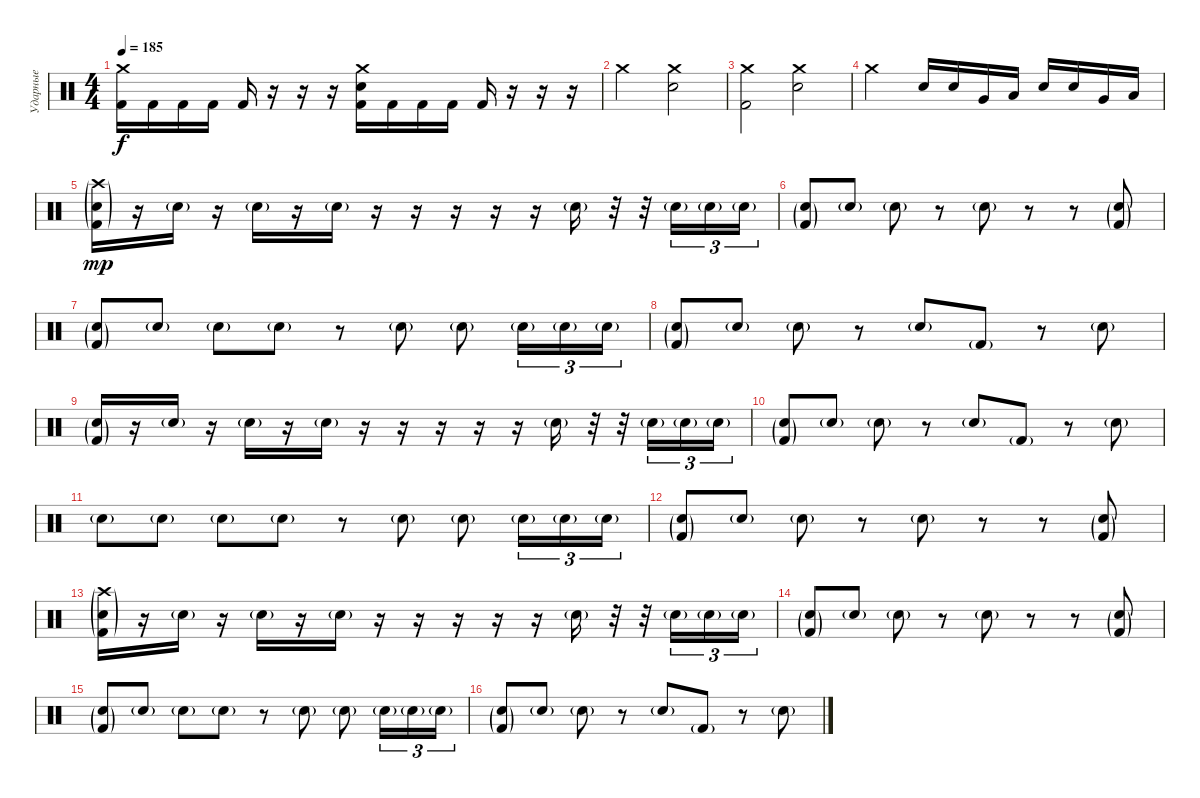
\track ("Ударные" "Ударные") {instrument percussion}
\staff {score}
\articulation defaults
\ts (4 4)
\tempo 185
\clef neutral
\ks c
("Crash medium (hit)" "Kick (hit) 2").16{dy f} "Kick (hit) 2".16 "Kick (hit) 2".16 "Kick (hit) 2".16 "Kick (hit) 2".16 r.16 r.16 r.16 ("Crash medium (hit)" "Electric Snare (hit)" "Kick (hit) 2").16 "Kick (hit) 2".16 "Kick (hit) 2".16 "Kick (hit) 2".16 "Kick (hit) 2".16 r.16 r.16 r.16 |
"Crash medium (hit)".2 ("Crash medium (hit)" "Electric Snare (hit)").2 |
("Crash medium (hit)" "Kick (hit) 2").2 ("Crash medium (hit)" "Electric Snare (hit)").2 |
"Crash medium (hit)".2 "Electric Snare (hit)".16 "Electric Snare (hit)".16 "Very Low Tom (hit)".16 "Low Floor Tom (hit)".16 "Electric Snare (hit)".16 "Electric Snare (hit)".16 "Very Low Tom (hit)".16 "Low Floor Tom (hit)".16 |
("Crash high (hit)"{g} "Electric Snare (hit)"{g} "Kick (hit) 2"{g}).16{dy mp} r.16 "Electric Snare (hit)"{g}.16 r.16 "Electric Snare (hit)"{g}.16 r.16 "Electric Snare (hit)"{g}.16 r.16 r.16 r.16 r.16 r.16 "Electric Snare (hit)"{g}.16 r.32 r.32 "Electric Snare (hit)"{g}.16{tu (3 2)} "Electric Snare (hit)"{g}.16{tu (3 2)} "Electric Snare (hit)"{g}.16{tu (3 2)} |
("Electric Snare (hit)"{g} "Kick (hit) 2"{g}).8 "Electric Snare (hit)"{g}.8 "Electric Snare (hit)"{g}.8 r.8 "Electric Snare (hit)"{g}.8 r.8 r.8 ("Electric Snare (hit)"{g} "Kick (hit) 2"{g}).8 |
("Electric Snare (hit)"{g} "Kick (hit) 2"{g}).8 "Electric Snare (hit)"{g}.8 "Electric Snare (hit)"{g}.8 "Electric Snare (hit)"{g}.8 r.8 "Electric Snare (hit)"{g}.8 "Electric Snare (hit)"{g}.8 "Electric Snare (hit)"{g}.16{tu (3 2)} "Electric Snare (hit)"{g}.16{tu (3 2)} "Electric Snare (hit)"{g}.16{tu (3 2)} |
("Electric Snare (hit)"{g} "Kick (hit) 2"{g}).8 "Electric Snare (hit)"{g}.8 "Electric Snare (hit)"{g}.8 r.8 "Electric Snare (hit)"{g}.8 "Kick (hit) 2"{g}.8 r.8 "Electric Snare (hit)"{g}.8 |
("Electric Snare (hit)"{g} "Kick (hit) 2"{g}).16 r.16 "Electric Snare (hit)"{g}.16 r.16 "Electric Snare (hit)"{g}.16 r.16 "Electric Snare (hit)"{g}.16 r.16 r.16 r.16 r.16 r.16 "Electric Snare (hit)"{g}.16 r.32 r.32 "Electric Snare (hit)"{g}.16{tu (3 2)} "Electric Snare (hit)"{g}.16{tu (3 2)} "Electric Snare (hit)"{g}.16{tu (3 2)} |
("Electric Snare (hit)"{g} "Kick (hit) 2"{g}).8 "Electric Snare (hit)"{g}.8 "Electric Snare (hit)"{g}.8 r.8 "Electric Snare (hit)"{g}.8 "Kick (hit) 2"{g}.8 r.8 "Electric Snare (hit)"{g}.8 |
"Electric Snare (hit)"{g}.8 "Electric Snare (hit)"{g}.8 "Electric Snare (hit)"{g}.8 "Electric Snare (hit)"{g}.8 r.8 "Electric Snare (hit)"{g}.8 "Electric Snare (hit)"{g}.8 "Electric Snare (hit)"{g}.16{tu (3 2)} "Electric Snare (hit)"{g}.16{tu (3 2)} "Electric Snare (hit)"{g}.16{tu (3 2)} |
("Electric Snare (hit)"{g} "Kick (hit) 2"{g}).8 "Electric Snare (hit)"{g}.8 "Electric Snare (hit)"{g}.8 r.8 "Electric Snare (hit)"{g}.8 r.8 r.8 ("Electric Snare (hit)"{g} "Kick (hit) 2"{g}).8 |
("Crash high (hit)"{g} "Electric Snare (hit)"{g} "Kick (hit) 2"{g}).16 r.16 "Electric Snare (hit)"{g}.16 r.16 "Electric Snare (hit)"{g}.16 r.16 "Electric Snare (hit)"{g}.16 r.16 r.16 r.16 r.16 r.16 "Electric Snare (hit)"{g}.16 r.32 r.32 "Electric Snare (hit)"{g}.16{tu (3 2)} "Electric Snare (hit)"{g}.16{tu (3 2)} "Electric Snare (hit)"{g}.16{tu (3 2)} |
("Electric Snare (hit)"{g} "Kick (hit) 2"{g}).8 "Electric Snare (hit)"{g}.8 "Electric Snare (hit)"{g}.8 r.8 "Electric Snare (hit)"{g}.8 r.8 r.8 ("Electric Snare (hit)"{g} "Kick (hit) 2"{g}).8 |
("Electric Snare (hit)"{g} "Kick (hit) 2"{g}).8 "Electric Snare (hit)"{g}.8 "Electric Snare (hit)"{g}.8 "Electric Snare (hit)"{g}.8 r.8 "Electric Snare (hit)"{g}.8 "Electric Snare (hit)"{g}.8 "Electric Snare (hit)"{g}.16{tu (3 2)} "Electric Snare (hit)"{g}.16{tu (3 2)} "Electric Snare (hit)"{g}.16{tu (3 2)} |
("Electric Snare (hit)"{g} "Kick (hit) 2"{g}).8 "Electric Snare (hit)"{g}.8 "Electric Snare (hit)"{g}.8 r.8 "Electric Snare (hit)"{g}.8 "Kick (hit) 2"{g}.8 r.8 "Electric Snare (hit)"{g}.8
